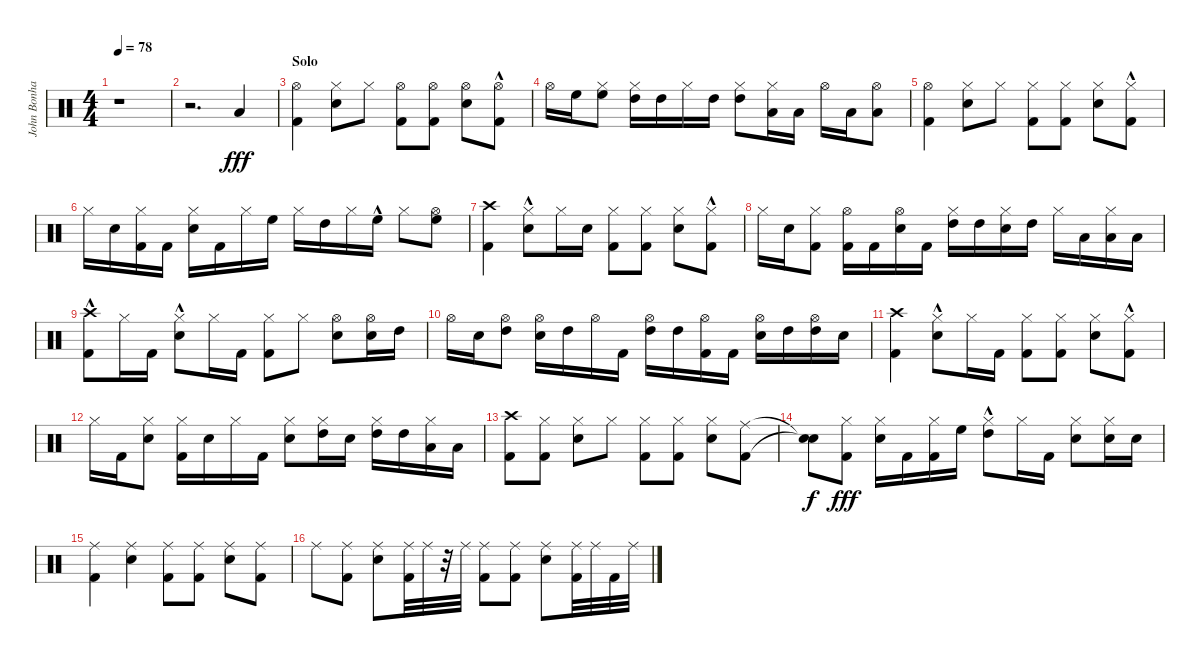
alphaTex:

\track ("John Bonham (Drums)" "John Bonha") {instrument percussion}
\staff {score}
\articulation defaults
\ts (4 4)
\tempo 78
\clef neutral
\ks c
r.1{dy fff} |
r.2{d} "Low Floor Tom (hit)".4 |
\section ("" "Solo")
("Kick (hit) 2" "Hi-Hat (open)").4 ("Snare (hit) 2" "Hi-Hat (closed)").8 "Hi-Hat (closed)".8 ("Kick (hit) 2" "Hi-Hat (open)").8 ("Kick (hit) 2" "Hi-Hat (open)").8 ("Snare (hit) 2" "Hi-Hat (open)").8 ("Kick (hit) 2"{hac} "Hi-Hat (open)").8 |
"Hi-Hat (open)".16 "High Floor Tom (hit)".16 ("Hi-Hat (closed)" "High Floor Tom (hit)").8 ("Hi-Hat (closed)" "High Tom (hit)").16 "High Tom (hit)".16 "Hi-Hat (closed)".16 "High Tom (hit)".16 ("Hi-Hat (closed)" "High Tom (hit)").8 ("Hi-Hat (closed)" "Low Tom (hit)").16 "Low Tom (hit)".16 "Hi-Hat (open)".16 "Low Tom (hit)".16 ("Hi-Hat (open)" "Low Tom (hit)").8 |
("Kick (hit) 2" "Hi-Hat (open)").4 ("Snare (hit) 2" "Hi-Hat (closed)").8 "Hi-Hat (closed)".8 ("Kick (hit) 2" "Hi-Hat (closed)").8 ("Kick (hit) 2" "Hi-Hat (closed)").8 ("Snare (hit) 2" "Hi-Hat (closed)").8 ("Kick (hit) 2"{hac} "Hi-Hat (closed)").8 |
"Hi-Hat (closed)".16 "Snare (hit) 2".16 ("Kick (hit) 2" "Hi-Hat (closed)").16 "Kick (hit) 2".16 ("Snare (hit) 2" "Hi-Hat (closed)").16 "Kick (hit) 2".16 "Hi-Hat (closed)".16 "High Floor Tom (hit)".16 "Hi-Hat (closed)".16 "High Tom (hit)".16 "Hi-Hat (closed)".16 "High Floor Tom (hit)"{hac}.16 "Hi-Hat (closed)".8 ("Hi-Hat (open)" "High Floor Tom (hit)").8 |
("Kick (hit) 2" "Crash high (hit)").4 ("Snare (hit) 2"{hac} "Hi-Hat (closed)").8 "Hi-Hat (closed)".16 "Snare (hit) 2".16 ("Kick (hit) 2" "Hi-Hat (closed)").8 ("Kick (hit) 2" "Hi-Hat (closed)").8 ("Snare (hit) 2" "Hi-Hat (closed)").8 ("Kick (hit) 2"{hac} "Hi-Hat (closed)").8 |
"Hi-Hat (closed)".16 "Snare (hit) 2".16 ("Kick (hit) 2" "Hi-Hat (closed)").8 ("Kick (hit) 2" "Hi-Hat (open)").16 "Kick (hit) 2".16 ("Snare (hit) 2" "Hi-Hat (open)").16 "Kick (hit) 2".16 ("Hi-Hat (closed)" "High Tom (hit)").16 "High Tom (hit)".16 ("Snare (hit) 2" "Hi-Hat (closed)").16 "High Tom (hit)".16 "Hi-Hat (closed)".16 "Low Tom (hit)".16 ("Hi-Hat (closed)" "Low Tom (hit)").16 "Low Tom (hit)".16 |
("Kick (hit) 2"{hac} "Crash high (hit)").8 "Hi-Hat (closed)".16 "Kick (hit) 2".16 ("Snare (hit) 2"{hac} "Hi-Hat (closed)").8 "Hi-Hat (closed)".16 "Kick (hit) 2".16 ("Kick (hit) 2" "Hi-Hat (closed)").8 "Hi-Hat (closed)".8 ("Snare (hit) 2" "Hi-Hat (open)").8 ("Snare (hit) 2" "Hi-Hat (open)").16 "High Tom (hit)".16 |
"Hi-Hat (open)".16 "Snare (hit) 2".16 ("Hi-Hat (open)" "High Tom (hit)").8 ("Snare (hit) 2" "Hi-Hat (open)").16 "High Tom (hit)".16 "Hi-Hat (open)".16 "Kick (hit) 2".16 ("Hi-Hat (open)" "High Tom (hit)").16 "High Tom (hit)".16 ("Kick (hit) 2" "Hi-Hat (open)").16 "Kick (hit) 2".16 ("Snare (hit) 2" "Hi-Hat (open)").16 "High Tom (hit)".16 ("Hi-Hat (open)" "High Tom (hit)").16 "Snare (hit) 2".16 |
("Kick (hit) 2" "Crash high (hit)").4 ("Snare (hit) 2"{hac} "Hi-Hat (closed)").8 "Hi-Hat (closed)".16 "Kick (hit) 2".16 ("Kick (hit) 2" "Hi-Hat (closed)").8 ("Kick (hit) 2" "Hi-Hat (closed)").8 ("Snare (hit) 2" "Hi-Hat (closed)").8 ("Kick (hit) 2"{hac} "Hi-Hat (closed)").8 |
"Hi-Hat (closed)".16 "Kick (hit) 2".16 ("Snare (hit) 2" "Hi-Hat (closed)").8 ("Kick (hit) 2" "Hi-Hat (closed)").16 "Snare (hit) 2".16 "Hi-Hat (closed)".16 "Kick (hit) 2".16 ("Snare (hit) 2" "Hi-Hat (closed)").8 ("Hi-Hat (closed)" "High Tom (hit)").16 "Snare (hit) 2".16 ("Hi-Hat (closed)" "High Tom (hit)").16 "High Tom (hit)".16 ("Hi-Hat (closed)" "Low Tom (hit)").16 "Low Tom (hit)".16 |
("Kick (hit) 2" "Crash high (hit)").8 ("Kick (hit) 2" "Hi-Hat (closed)").8 ("Snare (hit) 2" "Hi-Hat (closed)").8 "Hi-Hat (closed)".8 ("Kick (hit) 2" "Hi-Hat (closed)").8 ("Kick (hit) 2" "Hi-Hat (closed)").8 ("Snare (hit) 2" "Hi-Hat (closed)").8 ("Kick (hit) 2" "Ride (middle)").8 |
("Snare (hit)"{t} "Snare (hit)"{t}).8{dy f} ("Kick (hit) 2" "Hi-Hat (closed)").8{dy fff} ("Snare (hit) 2" "Hi-Hat (closed)").16 "Kick (hit) 2".16 ("Kick (hit) 2" "Hi-Hat (closed)").16 "High Floor Tom (hit)".16 ("Hi-Hat (closed)" "High Tom (hit)"{hac}).8 "Hi-Hat (closed)".16 "Kick (hit) 2".16 ("Snare (hit) 2" "Hi-Hat (closed)").8 ("Snare (hit) 2" "Hi-Hat (closed)").16 "Snare (hit) 2".16 |
("Kick (hit) 2" "Ride (middle)").4 ("Snare (hit) 2" "Ride (middle)").4 ("Kick (hit) 2" "Ride (middle)").8 ("Kick (hit) 2" "Ride (middle)").8 ("Snare (hit) 2" "Ride (middle)").8 ("Kick (hit) 2" "Ride (middle)").8 |
"Ride (middle)".8 ("Kick (hit) 2" "Ride (middle)").8 ("Snare (hit) 2" "Ride (middle)").8 ("Kick (hit) 2" "Ride (middle)").32 "Ride (middle)".32 r.32 "Ride (middle)".32 ("Kick (hit) 2" "Ride (middle)").8 ("Kick (hit) 2" "Ride (middle)").8 ("Snare (hit) 2" "Ride (middle)").8 ("Kick (hit) 2" "Ride (middle)").32 "Ride (middle)".32 "Kick (hit) 2".32 "Ride (middle)".32
